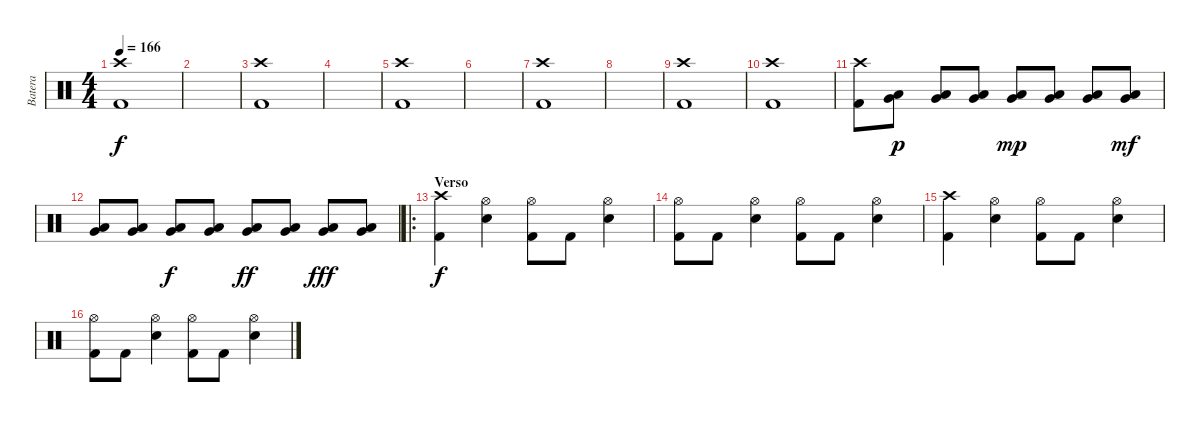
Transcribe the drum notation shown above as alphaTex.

\track ("Batera" "Batera") {instrument percussion}
\staff {score}
\articulation defaults
\ts (4 4)
\tempo 166
\clef neutral
\ks c
("Crash high (hit)" "Kick (hit) 2").1{dy f} |
|
("Crash high (hit)" "Kick (hit) 2").1 |
|
("Crash high (hit)" "Kick (hit) 2").1 |
|
("Crash high (hit)" "Kick (hit) 2").1 |
|
("Crash high (hit)" "Kick (hit) 2").1 |
("Crash high (hit)" "Kick (hit) 2").1 |
("Crash high (hit)" "Kick (hit) 2").8 ("Very Low Tom (hit)" "Low Tom (hit)").8{dy p} ("Very Low Tom (hit)" "Low Tom (hit)").8 ("Very Low Tom (hit)" "Low Tom (hit)").8 ("Very Low Tom (hit)" "Low Tom (hit)").8{dy mp} ("Very Low Tom (hit)" "Low Tom (hit)").8 ("Very Low Tom (hit)" "Low Tom (hit)").8 ("Very Low Tom (hit)" "Low Tom (hit)").8{dy mf} |
("Very Low Tom (hit)" "Low Tom (hit)").8 ("Low Tom (hit)" "Very Low Tom (hit)").8 ("Low Tom (hit)" "Very Low Tom (hit)").8{dy f} ("Low Tom (hit)" "Very Low Tom (hit)").8 ("Low Tom (hit)" "Very Low Tom (hit)").8{dy ff} ("Low Tom (hit)" "Very Low Tom (hit)").8 ("Low Tom (hit)" "Very Low Tom (hit)").8{dy fff} ("Low Tom (hit)" "Very Low Tom (hit)").8 |
\ro
\section ("" "Verso")
("Crash high (hit)" "Kick (hit) 2").4{dy f} ("Hi-Hat (open)" "Snare (hit) 2").4 ("Hi-Hat (open)" "Kick (hit) 2").8 "Kick (hit) 2".8 ("Hi-Hat (open)" "Snare (hit) 2").4 |
("Hi-Hat (open)" "Kick (hit) 2").8 "Kick (hit) 2".8 ("Hi-Hat (open)" "Snare (hit) 2").4 ("Hi-Hat (open)" "Kick (hit) 2").8 "Kick (hit) 2".8 ("Hi-Hat (open)" "Snare (hit) 2").4 |
("Crash high (hit)" "Kick (hit) 2").4 ("Hi-Hat (open)" "Snare (hit) 2").4 ("Hi-Hat (open)" "Kick (hit) 2").8 "Kick (hit) 2".8 ("Hi-Hat (open)" "Snare (hit) 2").4 |
("Hi-Hat (open)" "Kick (hit) 2").8 "Kick (hit) 2".8 ("Hi-Hat (open)" "Snare (hit) 2").4 ("Hi-Hat (open)" "Kick (hit) 2").8 "Kick (hit) 2".8 ("Hi-Hat (open)" "Snare (hit) 2").4
